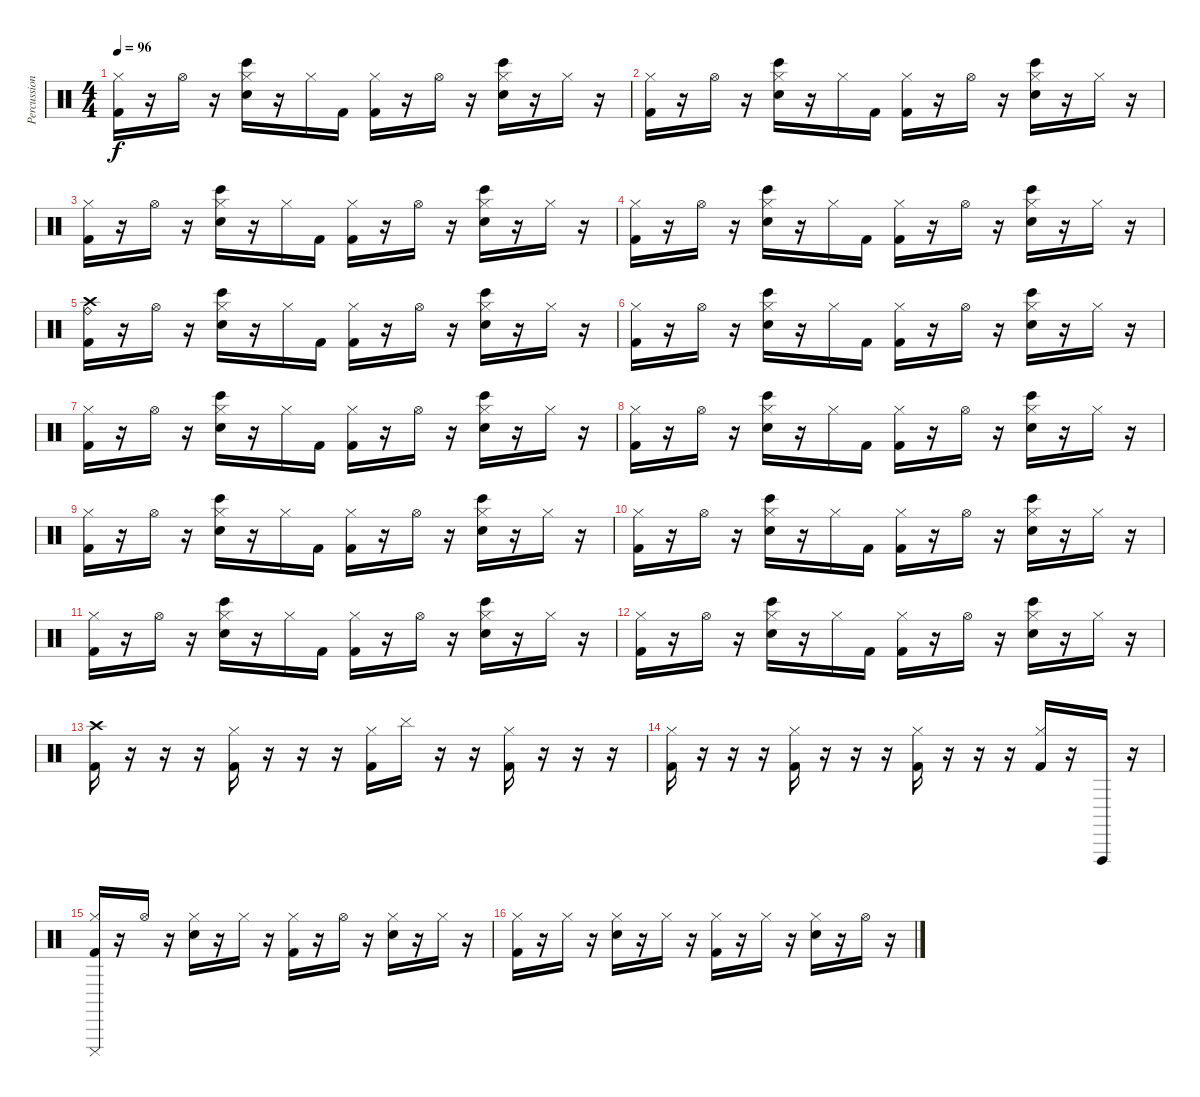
\track ("Percussion" "Percussion") {instrument percussion}
\staff {score}
\articulation defaults
\ts (4 4)
\tempo 96
\clef neutral
\ks c
("Hi-Hat (closed)" "Kick (hit) 2").16{dy f} r.16 "Hi-Hat (open)".16 r.16 ("Hi-Hat (closed)" "Bongo High (hit)" "Snare (hit) 2").16 r.16 "Hi-Hat (closed)".16 "Kick (hit) 2".16 ("Hi-Hat (closed)" "Kick (hit) 2").16 r.16 "Hi-Hat (open)".16 r.16 ("Hi-Hat (closed)" "Bongo High (hit)" "Snare (hit) 2").16 r.16 "Hi-Hat (closed)".16 r.16 |
("Hi-Hat (closed)" "Kick (hit) 2").16 r.16 "Hi-Hat (open)".16 r.16 ("Hi-Hat (closed)" "Bongo High (hit)" "Snare (hit) 2").16 r.16 "Hi-Hat (closed)".16 "Kick (hit) 2".16 ("Hi-Hat (closed)" "Kick (hit) 2").16 r.16 "Hi-Hat (open)".16 r.16 ("Hi-Hat (closed)" "Bongo High (hit)" "Snare (hit) 2").16 r.16 "Hi-Hat (closed)".16 r.16 |
("Hi-Hat (closed)" "Kick (hit) 2").16 r.16 "Hi-Hat (open)".16 r.16 ("Hi-Hat (closed)" "Bongo High (hit)" "Snare (hit) 2").16 r.16 "Hi-Hat (closed)".16 "Kick (hit) 2".16 ("Hi-Hat (closed)" "Kick (hit) 2").16 r.16 "Hi-Hat (open)".16 r.16 ("Hi-Hat (closed)" "Bongo High (hit)" "Snare (hit) 2").16 r.16 "Hi-Hat (closed)".16 r.16 |
("Hi-Hat (closed)" "Kick (hit) 2").16 r.16 "Hi-Hat (open)".16 r.16 ("Hi-Hat (closed)" "Bongo High (hit)" "Snare (hit) 2").16 r.16 "Hi-Hat (closed)".16 "Kick (hit) 2".16 ("Hi-Hat (closed)" "Kick (hit) 2").16 r.16 "Hi-Hat (open)".16 r.16 ("Hi-Hat (closed)" "Bongo High (hit)" "Snare (hit) 2").16 r.16 "Hi-Hat (closed)".16 r.16 |
("Crash high (hit)" "Ride (bell)" "Kick (hit) 2").16 r.16 "Hi-Hat (open)".16 r.16 ("Hi-Hat (closed)" "Bongo High (hit)" "Snare (hit) 2").16 r.16 "Hi-Hat (closed)".16 "Kick (hit) 2".16 ("Hi-Hat (closed)" "Kick (hit) 2").16 r.16 "Hi-Hat (open)".16 r.16 ("Hi-Hat (closed)" "Bongo High (hit)" "Snare (hit) 2").16 r.16 "Hi-Hat (closed)".16 r.16 |
("Hi-Hat (closed)" "Kick (hit) 2").16 r.16 "Hi-Hat (open)".16 r.16 ("Hi-Hat (closed)" "Bongo High (hit)" "Snare (hit) 2").16 r.16 "Hi-Hat (closed)".16 "Kick (hit) 2".16 ("Hi-Hat (closed)" "Kick (hit) 2").16 r.16 "Hi-Hat (open)".16 r.16 ("Hi-Hat (closed)" "Bongo High (hit)" "Snare (hit) 2").16 r.16 "Hi-Hat (closed)".16 r.16 |
("Hi-Hat (closed)" "Kick (hit) 2").16 r.16 "Hi-Hat (open)".16 r.16 ("Hi-Hat (closed)" "Bongo High (hit)" "Snare (hit) 2").16 r.16 "Hi-Hat (closed)".16 "Kick (hit) 2".16 ("Hi-Hat (closed)" "Kick (hit) 2").16 r.16 "Hi-Hat (open)".16 r.16 ("Hi-Hat (closed)" "Bongo High (hit)" "Snare (hit) 2").16 r.16 "Hi-Hat (closed)".16 r.16 |
("Hi-Hat (closed)" "Kick (hit) 2").16 r.16 "Hi-Hat (open)".16 r.16 ("Hi-Hat (closed)" "Bongo High (hit)" "Snare (hit) 2").16 r.16 "Hi-Hat (closed)".16 "Kick (hit) 2".16 ("Hi-Hat (closed)" "Kick (hit) 2").16 r.16 "Hi-Hat (open)".16 r.16 ("Hi-Hat (closed)" "Bongo High (hit)" "Snare (hit) 2").16 r.16 "Hi-Hat (closed)".16 r.16 |
("Hi-Hat (closed)" "Kick (hit) 2").16 r.16 "Hi-Hat (open)".16 r.16 ("Hi-Hat (closed)" "Bongo High (hit)" "Snare (hit) 2").16 r.16 "Hi-Hat (closed)".16 "Kick (hit) 2".16 ("Hi-Hat (closed)" "Kick (hit) 2").16 r.16 "Hi-Hat (open)".16 r.16 ("Hi-Hat (closed)" "Bongo High (hit)" "Snare (hit) 2").16 r.16 "Hi-Hat (closed)".16 r.16 |
("Hi-Hat (closed)" "Kick (hit) 2").16 r.16 "Hi-Hat (open)".16 r.16 ("Hi-Hat (closed)" "Bongo High (hit)" "Snare (hit) 2").16 r.16 "Hi-Hat (closed)".16 "Kick (hit) 2".16 ("Hi-Hat (closed)" "Kick (hit) 2").16 r.16 "Hi-Hat (open)".16 r.16 ("Hi-Hat (closed)" "Bongo High (hit)" "Snare (hit) 2").16 r.16 "Hi-Hat (closed)".16 r.16 |
("Hi-Hat (closed)" "Kick (hit) 2").16 r.16 "Hi-Hat (open)".16 r.16 ("Hi-Hat (closed)" "Bongo High (hit)" "Snare (hit) 2").16 r.16 "Hi-Hat (closed)".16 "Kick (hit) 2".16 ("Hi-Hat (closed)" "Kick (hit) 2").16 r.16 "Hi-Hat (open)".16 r.16 ("Hi-Hat (closed)" "Bongo High (hit)" "Snare (hit) 2").16 r.16 "Hi-Hat (closed)".16 r.16 |
("Hi-Hat (closed)" "Kick (hit) 2").16 r.16 "Hi-Hat (open)".16 r.16 ("Hi-Hat (closed)" "Bongo High (hit)" "Snare (hit) 2").16 r.16 "Hi-Hat (closed)".16 "Kick (hit) 2".16 ("Hi-Hat (closed)" "Kick (hit) 2").16 r.16 "Hi-Hat (open)".16 r.16 ("Hi-Hat (closed)" "Bongo High (hit)" "Snare (hit) 2").16 r.16 "Hi-Hat (closed)".16 r.16 |
("Crash high (hit)" "Kick (hit) 2").16 r.16 r.16 r.16 ("Hi-Hat (closed)" "Kick (hit) 2").16 r.16 r.16 r.16 ("Hi-Hat (closed)" "Kick (hit) 2").16 "Cymbal (hit)".16 r.16 r.16 ("Hi-Hat (closed)" "Kick (hit) 2").16 r.16 r.16 r.16 |
("Hi-Hat (closed)" "Kick (hit) 2").16 r.16 r.16 r.16 ("Hi-Hat (closed)" "Kick (hit) 2").16 r.16 r.16 r.16 ("Hi-Hat (closed)" "Kick (hit) 2").16 r.16 r.16 r.16 ("Hi-Hat (closed)" "Kick (hit) 2").16 r.16 "Vibraslap (hit)".16 r.16 |
("Hi-Hat (closed)" "Cuica (mute)" "Kick (hit) 2").16 r.16 "Hi-Hat (open)".16 r.16 ("Hi-Hat (closed)" "Snare (hit) 2").16 r.16 "Hi-Hat (closed)".16 r.16 ("Hi-Hat (closed)" "Kick (hit) 2").16 r.16 "Hi-Hat (open)".16 r.16 ("Hi-Hat (closed)" "Snare (hit) 2").16 r.16 "Hi-Hat (closed)".16 r.16 |
("Hi-Hat (closed)" "Kick (hit) 2").16 r.16 "Hi-Hat (closed)".16 r.16 ("Hi-Hat (closed)" "Snare (hit) 2").16 r.16 "Hi-Hat (closed)".16 r.16 ("Hi-Hat (closed)" "Kick (hit) 2").16 r.16 "Hi-Hat (closed)".16 r.16 ("Hi-Hat (closed)" "Snare (hit) 2").16 r.16 "Hi-Hat (open)".16 r.16
